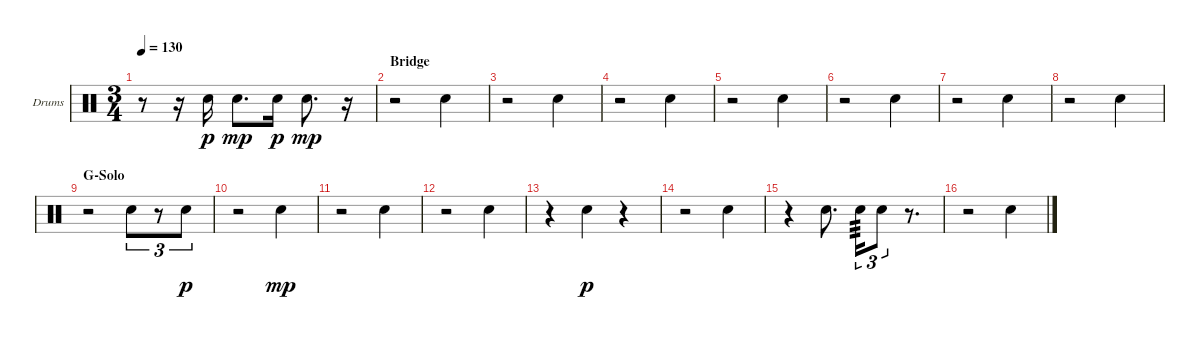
\bracketExtendMode groupsimilarinstruments
\firstSystemTrackNameOrientation horizontal
\otherSystemsTrackNameOrientation horizontal
\track ("Drums" "Drums") {instrument percussion}
\staff {score}
\articulation defaults
\ts (3 4)
\tempo 130
\clef neutral
\ks c
r.8{dy mp} r.16 "Snare (hit) 2".16{dy p} "Snare (hit) 2".8{d dy mp} "Snare (hit) 2".16{dy p} "Snare (hit) 2".8{d dy mp} r.16 |
\section ("" "Bridge")
r.2 "Snare (hit) 2".4 |
r.2 "Snare (hit) 2".4 |
r.2 "Snare (hit) 2".4 |
r.2 "Snare (hit) 2".4 |
r.2 "Snare (hit) 2".4 |
r.2 "Snare (hit) 2".4 |
r.2 "Snare (hit) 2".4 |
\section ("" "G-Solo")
r.2 "Snare (hit) 2".8{tu (3 2)} r.8{tu (3 2)} "Snare (hit) 2".8{tu (3 2) dy p} |
r.2 "Snare (hit) 2".4{dy mp} |
r.2 "Snare (hit) 2".4 |
r.2 "Snare (hit) 2".4 |
r.4 "Snare (hit) 2".4{dy p} r.4 |
r.2 "Snare (hit) 2".4 |
r.4 "Snare (hit) 2".8{d} "Snare (hit) 2".16{tu (3 2) tp 3} "Snare (hit) 2".8{tu (3 2)} r.8{d} |
r.2 "Snare (hit) 2".4
